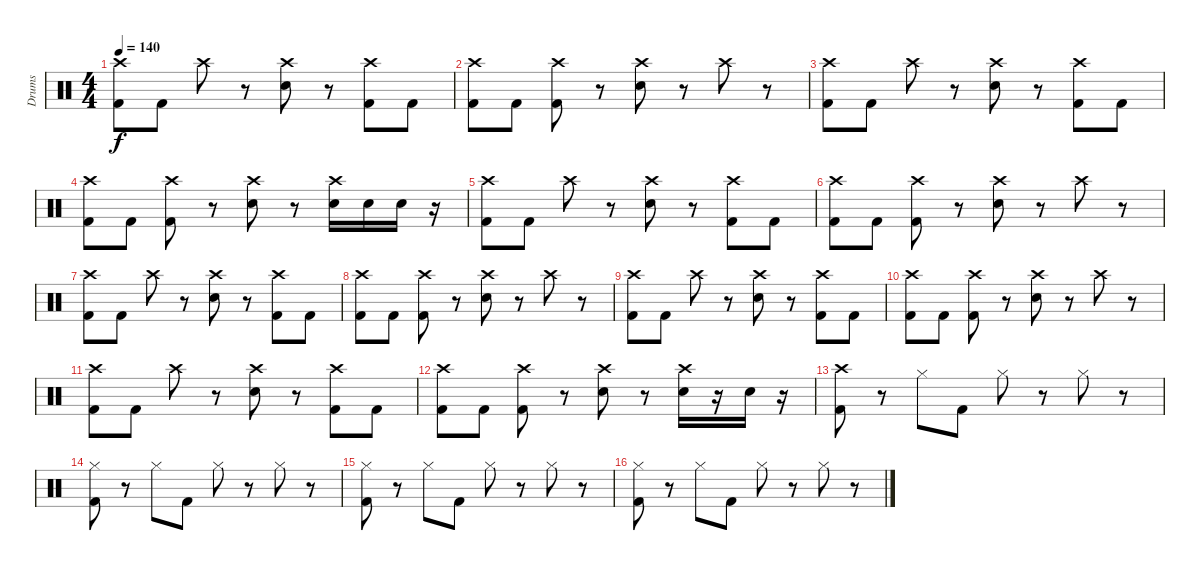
\track ("Drums" "Drums") {instrument percussion}
\staff {score}
\articulation defaults
\ts (4 4)
\tempo 140
\clef neutral
\ks c
("Crash high (hit)" "Kick (hit) 2").8{dy f} "Kick (hit) 2".8 "Crash high (hit)".8 r.8 ("Crash high (hit)" "Electric Snare (hit)").8 r.8 ("Crash high (hit)" "Kick (hit) 2").8 "Kick (hit) 2".8 |
("Crash high (hit)" "Kick (hit) 2").8 "Kick (hit) 2".8 ("Crash high (hit)" "Kick (hit) 2").8 r.8 ("Crash high (hit)" "Electric Snare (hit)").8 r.8 "Crash high (hit)".8 r.8 |
("Crash high (hit)" "Kick (hit) 2").8 "Kick (hit) 2".8 "Crash high (hit)".8 r.8 ("Crash high (hit)" "Electric Snare (hit)").8 r.8 ("Crash high (hit)" "Kick (hit) 2").8 "Kick (hit) 2".8 |
("Crash high (hit)" "Kick (hit) 2").8 "Kick (hit) 2".8 ("Crash high (hit)" "Kick (hit) 2").8 r.8 ("Crash high (hit)" "Electric Snare (hit)").8 r.8 ("Crash high (hit)" "Electric Snare (hit)").16 "Electric Snare (hit)".16 "Electric Snare (hit)".16 r.16 |
("Crash high (hit)" "Kick (hit) 2").8 "Kick (hit) 2".8 "Crash high (hit)".8 r.8 ("Crash high (hit)" "Electric Snare (hit)").8 r.8 ("Crash high (hit)" "Kick (hit) 2").8 "Kick (hit) 2".8 |
("Crash high (hit)" "Kick (hit) 2").8 "Kick (hit) 2".8 ("Crash high (hit)" "Kick (hit) 2").8 r.8 ("Crash high (hit)" "Electric Snare (hit)").8 r.8 "Crash high (hit)".8 r.8 |
("Crash high (hit)" "Kick (hit) 2").8 "Kick (hit) 2".8 "Crash high (hit)".8 r.8 ("Crash high (hit)" "Electric Snare (hit)").8 r.8 ("Crash high (hit)" "Kick (hit) 2").8 "Kick (hit) 2".8 |
("Crash high (hit)" "Kick (hit) 2").8 "Kick (hit) 2".8 ("Crash high (hit)" "Kick (hit) 2").8 r.8 ("Crash high (hit)" "Electric Snare (hit)").8 r.8 "Crash high (hit)".8 r.8 |
("Crash high (hit)" "Kick (hit) 2").8 "Kick (hit) 2".8 "Crash high (hit)".8 r.8 ("Crash high (hit)" "Electric Snare (hit)").8 r.8 ("Crash high (hit)" "Kick (hit) 2").8 "Kick (hit) 2".8 |
("Crash high (hit)" "Kick (hit) 2").8 "Kick (hit) 2".8 ("Crash high (hit)" "Kick (hit) 2").8 r.8 ("Crash high (hit)" "Electric Snare (hit)").8 r.8 "Crash high (hit)".8 r.8 |
("Crash high (hit)" "Kick (hit) 2").8 "Kick (hit) 2".8 "Crash high (hit)".8 r.8 ("Crash high (hit)" "Electric Snare (hit)").8 r.8 ("Crash high (hit)" "Kick (hit) 2").8 "Kick (hit) 2".8 |
("Crash high (hit)" "Kick (hit) 2").8 "Kick (hit) 2".8 ("Crash high (hit)" "Kick (hit) 2").8 r.8 ("Crash high (hit)" "Electric Snare (hit)").8 r.8 ("Crash high (hit)" "Electric Snare (hit)").16 r.16 "Electric Snare (hit)".16 r.16 |
("Crash high (hit)" "Kick (hit) 2").8 r.8 "Hi-Hat (closed)".8 "Kick (hit) 2".8 "Hi-Hat (closed)".8 r.8 "Hi-Hat (closed)".8 r.8 |
("Hi-Hat (closed)" "Kick (hit) 2").8 r.8 "Hi-Hat (closed)".8 "Kick (hit) 2".8 "Hi-Hat (closed)".8 r.8 "Hi-Hat (closed)".8 r.8 |
("Hi-Hat (closed)" "Kick (hit) 2").8 r.8 "Hi-Hat (closed)".8 "Kick (hit) 2".8 "Hi-Hat (closed)".8 r.8 "Hi-Hat (closed)".8 r.8 |
("Hi-Hat (closed)" "Kick (hit) 2").8 r.8 "Hi-Hat (closed)".8 "Kick (hit) 2".8 "Hi-Hat (closed)".8 r.8 "Hi-Hat (closed)".8 r.8
